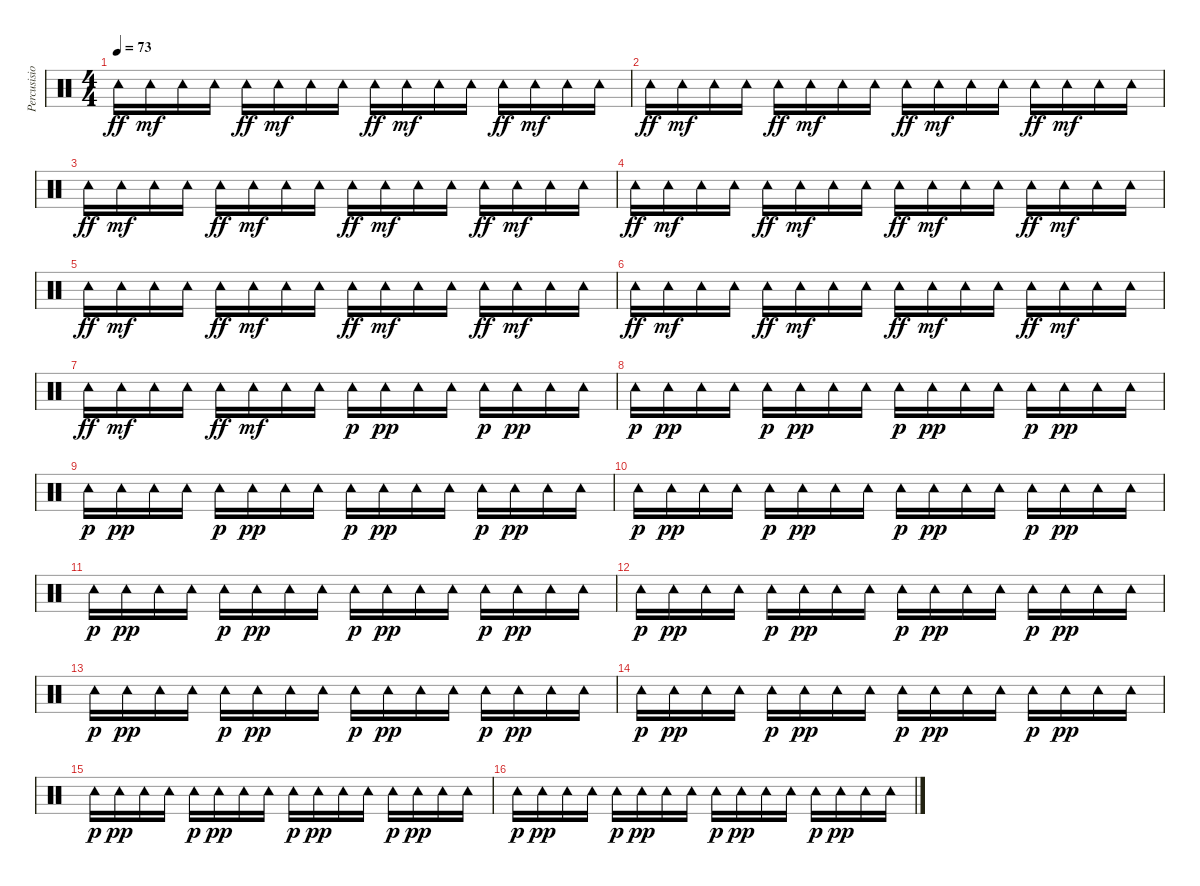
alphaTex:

\track ("Percusision" "Percusisio") {instrument percussion}
\staff {score}
\articulation defaults
\ts (4 4)
\tempo 73
\clef neutral
\ks c "Tambourine (hit)".16{dy ff} "Tambourine (hit)".16{dy mf} "Tambourine (hit)".16 "Tambourine (hit)".16 "Tambourine (hit)".16{dy ff} "Tambourine (hit)".16{dy mf} "Tambourine (hit)".16 "Tambourine (hit)".16 "Tambourine (hit)".16{dy ff} "Tambourine (hit)".16{dy mf} "Tambourine (hit)".16 "Tambourine (hit)".16 "Tambourine (hit)".16{dy ff} "Tambourine (hit)".16{dy mf} "Tambourine (hit)".16 "Tambourine (hit)".16
|
"Tambourine (hit)".16{dy ff} "Tambourine (hit)".16{dy mf} "Tambourine (hit)".16 "Tambourine (hit)".16 "Tambourine (hit)".16{dy ff} "Tambourine (hit)".16{dy mf} "Tambourine (hit)".16 "Tambourine (hit)".16 "Tambourine (hit)".16{dy ff} "Tambourine (hit)".16{dy mf} "Tambourine (hit)".16 "Tambourine (hit)".16 "Tambourine (hit)".16{dy ff} "Tambourine (hit)".16{dy mf} "Tambourine (hit)".16 "Tambourine (hit)".16 |
"Tambourine (hit)".16{dy ff} "Tambourine (hit)".16{dy mf} "Tambourine (hit)".16 "Tambourine (hit)".16 "Tambourine (hit)".16{dy ff} "Tambourine (hit)".16{dy mf} "Tambourine (hit)".16 "Tambourine (hit)".16 "Tambourine (hit)".16{dy ff} "Tambourine (hit)".16{dy mf} "Tambourine (hit)".16 "Tambourine (hit)".16 "Tambourine (hit)".16{dy ff} "Tambourine (hit)".16{dy mf} "Tambourine (hit)".16 "Tambourine (hit)".16 |
"Tambourine (hit)".16{dy ff} "Tambourine (hit)".16{dy mf} "Tambourine (hit)".16 "Tambourine (hit)".16 "Tambourine (hit)".16{dy ff} "Tambourine (hit)".16{dy mf} "Tambourine (hit)".16 "Tambourine (hit)".16 "Tambourine (hit)".16{dy ff} "Tambourine (hit)".16{dy mf} "Tambourine (hit)".16 "Tambourine (hit)".16 "Tambourine (hit)".16{dy ff} "Tambourine (hit)".16{dy mf} "Tambourine (hit)".16 "Tambourine (hit)".16 |
"Tambourine (hit)".16{dy ff} "Tambourine (hit)".16{dy mf} "Tambourine (hit)".16 "Tambourine (hit)".16 "Tambourine (hit)".16{dy ff} "Tambourine (hit)".16{dy mf} "Tambourine (hit)".16 "Tambourine (hit)".16 "Tambourine (hit)".16{dy ff} "Tambourine (hit)".16{dy mf} "Tambourine (hit)".16 "Tambourine (hit)".16 "Tambourine (hit)".16{dy ff} "Tambourine (hit)".16{dy mf} "Tambourine (hit)".16 "Tambourine (hit)".16 |
"Tambourine (hit)".16{dy ff} "Tambourine (hit)".16{dy mf} "Tambourine (hit)".16 "Tambourine (hit)".16 "Tambourine (hit)".16{dy ff} "Tambourine (hit)".16{dy mf} "Tambourine (hit)".16 "Tambourine (hit)".16 "Tambourine (hit)".16{dy ff} "Tambourine (hit)".16{dy mf} "Tambourine (hit)".16 "Tambourine (hit)".16 "Tambourine (hit)".16{dy ff} "Tambourine (hit)".16{dy mf} "Tambourine (hit)".16 "Tambourine (hit)".16 |
"Tambourine (hit)".16{dy ff} "Tambourine (hit)".16{dy mf} "Tambourine (hit)".16 "Tambourine (hit)".16 "Tambourine (hit)".16{dy ff} "Tambourine (hit)".16{dy mf} "Tambourine (hit)".16 "Tambourine (hit)".16 "Tambourine (hit)".16{dy p} "Tambourine (hit)".16{dy pp} "Tambourine (hit)".16 "Tambourine (hit)".16 "Tambourine (hit)".16{dy p} "Tambourine (hit)".16{dy pp} "Tambourine (hit)".16 "Tambourine (hit)".16 |
"Tambourine (hit)".16{dy p} "Tambourine (hit)".16{dy pp} "Tambourine (hit)".16 "Tambourine (hit)".16 "Tambourine (hit)".16{dy p} "Tambourine (hit)".16{dy pp} "Tambourine (hit)".16 "Tambourine (hit)".16 "Tambourine (hit)".16{dy p} "Tambourine (hit)".16{dy pp} "Tambourine (hit)".16 "Tambourine (hit)".16 "Tambourine (hit)".16{dy p} "Tambourine (hit)".16{dy pp} "Tambourine (hit)".16 "Tambourine (hit)".16 |
"Tambourine (hit)".16{dy p} "Tambourine (hit)".16{dy pp} "Tambourine (hit)".16 "Tambourine (hit)".16 "Tambourine (hit)".16{dy p} "Tambourine (hit)".16{dy pp} "Tambourine (hit)".16 "Tambourine (hit)".16 "Tambourine (hit)".16{dy p} "Tambourine (hit)".16{dy pp} "Tambourine (hit)".16 "Tambourine (hit)".16 "Tambourine (hit)".16{dy p} "Tambourine (hit)".16{dy pp} "Tambourine (hit)".16 "Tambourine (hit)".16 |
"Tambourine (hit)".16{dy p} "Tambourine (hit)".16{dy pp} "Tambourine (hit)".16 "Tambourine (hit)".16 "Tambourine (hit)".16{dy p} "Tambourine (hit)".16{dy pp} "Tambourine (hit)".16 "Tambourine (hit)".16 "Tambourine (hit)".16{dy p} "Tambourine (hit)".16{dy pp} "Tambourine (hit)".16 "Tambourine (hit)".16 "Tambourine (hit)".16{dy p} "Tambourine (hit)".16{dy pp} "Tambourine (hit)".16 "Tambourine (hit)".16 |
"Tambourine (hit)".16{dy p} "Tambourine (hit)".16{dy pp} "Tambourine (hit)".16 "Tambourine (hit)".16 "Tambourine (hit)".16{dy p} "Tambourine (hit)".16{dy pp} "Tambourine (hit)".16 "Tambourine (hit)".16 "Tambourine (hit)".16{dy p} "Tambourine (hit)".16{dy pp} "Tambourine (hit)".16 "Tambourine (hit)".16 "Tambourine (hit)".16{dy p} "Tambourine (hit)".16{dy pp} "Tambourine (hit)".16 "Tambourine (hit)".16 |
"Tambourine (hit)".16{dy p} "Tambourine (hit)".16{dy pp} "Tambourine (hit)".16 "Tambourine (hit)".16 "Tambourine (hit)".16{dy p} "Tambourine (hit)".16{dy pp} "Tambourine (hit)".16 "Tambourine (hit)".16 "Tambourine (hit)".16{dy p} "Tambourine (hit)".16{dy pp} "Tambourine (hit)".16 "Tambourine (hit)".16 "Tambourine (hit)".16{dy p} "Tambourine (hit)".16{dy pp} "Tambourine (hit)".16 "Tambourine (hit)".16 |
"Tambourine (hit)".16{dy p} "Tambourine (hit)".16{dy pp} "Tambourine (hit)".16 "Tambourine (hit)".16 "Tambourine (hit)".16{dy p} "Tambourine (hit)".16{dy pp} "Tambourine (hit)".16 "Tambourine (hit)".16 "Tambourine (hit)".16{dy p} "Tambourine (hit)".16{dy pp} "Tambourine (hit)".16 "Tambourine (hit)".16 "Tambourine (hit)".16{dy p} "Tambourine (hit)".16{dy pp} "Tambourine (hit)".16 "Tambourine (hit)".16 |
"Tambourine (hit)".16{dy p} "Tambourine (hit)".16{dy pp} "Tambourine (hit)".16 "Tambourine (hit)".16 "Tambourine (hit)".16{dy p} "Tambourine (hit)".16{dy pp} "Tambourine (hit)".16 "Tambourine (hit)".16 "Tambourine (hit)".16{dy p} "Tambourine (hit)".16{dy pp} "Tambourine (hit)".16 "Tambourine (hit)".16 "Tambourine (hit)".16{dy p} "Tambourine (hit)".16{dy pp} "Tambourine (hit)".16 "Tambourine (hit)".16 |
"Tambourine (hit)".16{dy p} "Tambourine (hit)".16{dy pp} "Tambourine (hit)".16 "Tambourine (hit)".16 "Tambourine (hit)".16{dy p} "Tambourine (hit)".16{dy pp} "Tambourine (hit)".16 "Tambourine (hit)".16 "Tambourine (hit)".16{dy p} "Tambourine (hit)".16{dy pp} "Tambourine (hit)".16 "Tambourine (hit)".16 "Tambourine (hit)".16{dy p} "Tambourine (hit)".16{dy pp} "Tambourine (hit)".16 "Tambourine (hit)".16 |
"Tambourine (hit)".16{dy p} "Tambourine (hit)".16{dy pp} "Tambourine (hit)".16 "Tambourine (hit)".16 "Tambourine (hit)".16{dy p} "Tambourine (hit)".16{dy pp} "Tambourine (hit)".16 "Tambourine (hit)".16 "Tambourine (hit)".16{dy p} "Tambourine (hit)".16{dy pp} "Tambourine (hit)".16 "Tambourine (hit)".16 "Tambourine (hit)".16{dy p} "Tambourine (hit)".16{dy pp} "Tambourine (hit)".16 "Tambourine (hit)".16
